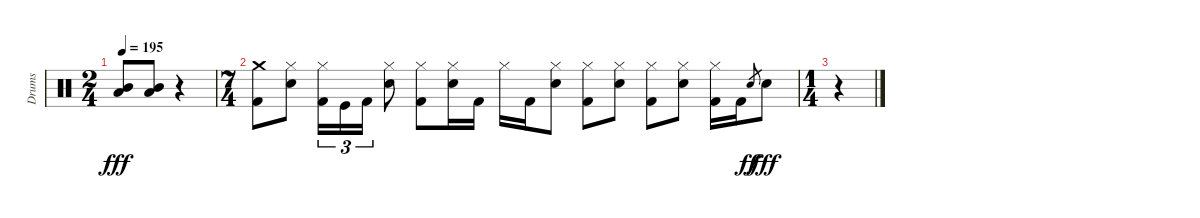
\track ("Drums" "Drums") {instrument percussion}
\staff {score}
\articulation defaults
\ts (2 4)
\tempo 195
\clef neutral
\ks c
("Mid Tom (hit)" "Low Tom (hit)").8{dy fff} ("Mid Tom (hit)" "Low Tom (hit)").8 r.4 |
\ts (7 4)
("Crash medium (hit)" "Kick (hit) 2").8 ("Snare (hit) 2" "Hi-Hat (closed)").8 ("Hi-Hat (closed)" "Kick (hit) 2").16{tu (3 2)} "Kick (hit)".16{tu (3 2)} "Kick (hit) 2".16{tu (3 2)} ("Snare (hit) 2" "Hi-Hat (closed)").8 ("Hi-Hat (closed)" "Kick (hit) 2").8 ("Snare (hit) 2" "Hi-Hat (closed)").16 "Kick (hit) 2".16 "Hi-Hat (closed)".16 "Kick (hit) 2".16 ("Snare (hit) 2" "Hi-Hat (closed)").8 ("Hi-Hat (closed)" "Kick (hit) 2").8 ("Snare (hit) 2" "Hi-Hat (closed)").8 ("Hi-Hat (closed)" "Kick (hit) 2").8 ("Snare (hit) 2" "Hi-Hat (closed)").8 ("Hi-Hat (closed)" "Kick (hit) 2").16 "Kick (hit) 2".16 "Snare (hit)".8{gr dy ff} "Snare (hit) 2".8{dy fff} |
\ts (1 4)
r.4
